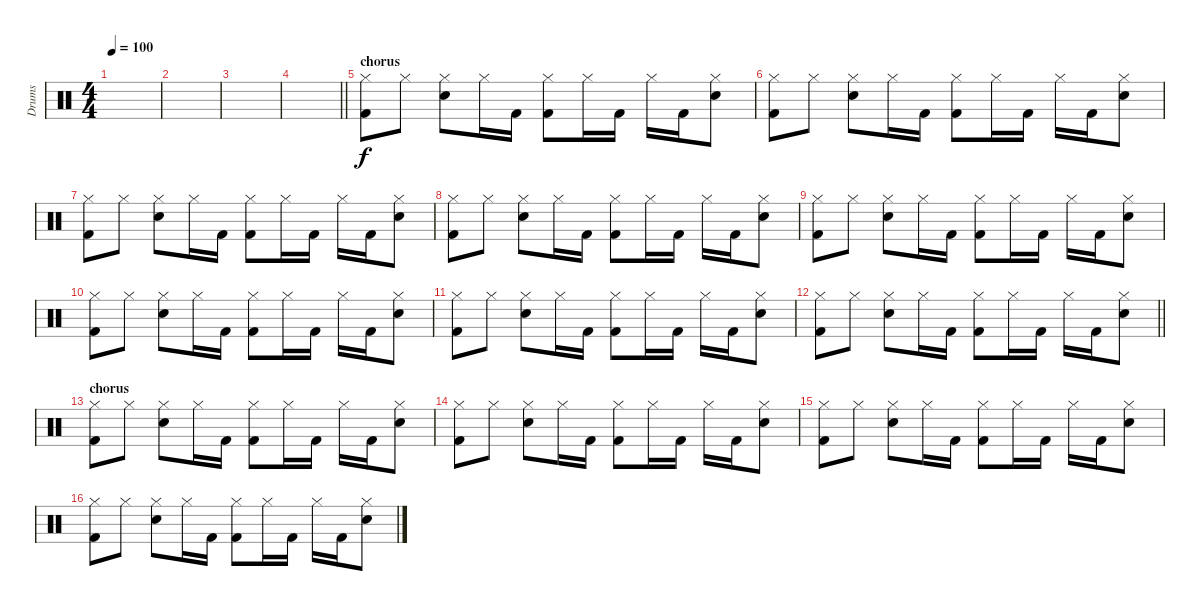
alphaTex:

\track ("Drums" "Drums") {instrument percussion}
\staff {score}
\articulation defaults
\ts (4 4)
\tempo 100
\clef neutral
\ks c
|
|
|
\barLineRight lightlight
|
\section ("" "chorus")
("Hi-Hat (closed)" "Kick (hit) 2").8 "Hi-Hat (closed)".8 ("Hi-Hat (closed)" "Snare (hit) 2").8 "Hi-Hat (closed)".16 "Kick (hit) 2".16 ("Hi-Hat (closed)" "Kick (hit) 2").8 "Hi-Hat (closed)".16 "Kick (hit) 2".16 "Hi-Hat (closed)".16 "Kick (hit) 2".16 ("Hi-Hat (closed)" "Snare (hit) 2").8 |
("Hi-Hat (closed)" "Kick (hit) 2").8 "Hi-Hat (closed)".8 ("Hi-Hat (closed)" "Snare (hit) 2").8 "Hi-Hat (closed)".16 "Kick (hit) 2".16 ("Hi-Hat (closed)" "Kick (hit) 2").8 "Hi-Hat (closed)".16 "Kick (hit) 2".16 "Hi-Hat (closed)".16 "Kick (hit) 2".16 ("Hi-Hat (closed)" "Snare (hit) 2").8 |
("Hi-Hat (closed)" "Kick (hit) 2").8 "Hi-Hat (closed)".8 ("Hi-Hat (closed)" "Snare (hit) 2").8 "Hi-Hat (closed)".16 "Kick (hit) 2".16 ("Hi-Hat (closed)" "Kick (hit) 2").8 "Hi-Hat (closed)".16 "Kick (hit) 2".16 "Hi-Hat (closed)".16 "Kick (hit) 2".16 ("Hi-Hat (closed)" "Snare (hit) 2").8 |
("Hi-Hat (closed)" "Kick (hit) 2").8 "Hi-Hat (closed)".8 ("Hi-Hat (closed)" "Snare (hit) 2").8 "Hi-Hat (closed)".16 "Kick (hit) 2".16 ("Hi-Hat (closed)" "Kick (hit) 2").8 "Hi-Hat (closed)".16 "Kick (hit) 2".16 "Hi-Hat (closed)".16 "Kick (hit) 2".16 ("Hi-Hat (closed)" "Snare (hit) 2").8 |
("Hi-Hat (closed)" "Kick (hit) 2").8 "Hi-Hat (closed)".8 ("Hi-Hat (closed)" "Snare (hit) 2").8 "Hi-Hat (closed)".16 "Kick (hit) 2".16 ("Hi-Hat (closed)" "Kick (hit) 2").8 "Hi-Hat (closed)".16 "Kick (hit) 2".16 "Hi-Hat (closed)".16 "Kick (hit) 2".16 ("Hi-Hat (closed)" "Snare (hit) 2").8 |
("Hi-Hat (closed)" "Kick (hit) 2").8 "Hi-Hat (closed)".8 ("Hi-Hat (closed)" "Snare (hit) 2").8 "Hi-Hat (closed)".16 "Kick (hit) 2".16 ("Hi-Hat (closed)" "Kick (hit) 2").8 "Hi-Hat (closed)".16 "Kick (hit) 2".16 "Hi-Hat (closed)".16 "Kick (hit) 2".16 ("Hi-Hat (closed)" "Snare (hit) 2").8 |
("Hi-Hat (closed)" "Kick (hit) 2").8 "Hi-Hat (closed)".8 ("Hi-Hat (closed)" "Snare (hit) 2").8 "Hi-Hat (closed)".16 "Kick (hit) 2".16 ("Hi-Hat (closed)" "Kick (hit) 2").8 "Hi-Hat (closed)".16 "Kick (hit) 2".16 "Hi-Hat (closed)".16 "Kick (hit) 2".16 ("Hi-Hat (closed)" "Snare (hit) 2").8 |
\barLineRight lightlight
("Hi-Hat (closed)" "Kick (hit) 2").8 "Hi-Hat (closed)".8 ("Hi-Hat (closed)" "Snare (hit) 2").8 "Hi-Hat (closed)".16 "Kick (hit) 2".16 ("Hi-Hat (closed)" "Kick (hit) 2").8 "Hi-Hat (closed)".16 "Kick (hit) 2".16 "Hi-Hat (closed)".16 "Kick (hit) 2".16 ("Hi-Hat (closed)" "Snare (hit) 2").8 |
\section ("" "chorus")
("Hi-Hat (closed)" "Kick (hit) 2").8 "Hi-Hat (closed)".8 ("Hi-Hat (closed)" "Snare (hit) 2").8 "Hi-Hat (closed)".16 "Kick (hit) 2".16 ("Hi-Hat (closed)" "Kick (hit) 2").8 "Hi-Hat (closed)".16 "Kick (hit) 2".16 "Hi-Hat (closed)".16 "Kick (hit) 2".16 ("Hi-Hat (closed)" "Snare (hit) 2").8 |
("Hi-Hat (closed)" "Kick (hit) 2").8 "Hi-Hat (closed)".8 ("Hi-Hat (closed)" "Snare (hit) 2").8 "Hi-Hat (closed)".16 "Kick (hit) 2".16 ("Hi-Hat (closed)" "Kick (hit) 2").8 "Hi-Hat (closed)".16 "Kick (hit) 2".16 "Hi-Hat (closed)".16 "Kick (hit) 2".16 ("Hi-Hat (closed)" "Snare (hit) 2").8 |
("Hi-Hat (closed)" "Kick (hit) 2").8 "Hi-Hat (closed)".8 ("Hi-Hat (closed)" "Snare (hit) 2").8 "Hi-Hat (closed)".16 "Kick (hit) 2".16 ("Hi-Hat (closed)" "Kick (hit) 2").8 "Hi-Hat (closed)".16 "Kick (hit) 2".16 "Hi-Hat (closed)".16 "Kick (hit) 2".16 ("Hi-Hat (closed)" "Snare (hit) 2").8 |
("Hi-Hat (closed)" "Kick (hit) 2").8 "Hi-Hat (closed)".8 ("Hi-Hat (closed)" "Snare (hit) 2").8 "Hi-Hat (closed)".16 "Kick (hit) 2".16 ("Hi-Hat (closed)" "Kick (hit) 2").8 "Hi-Hat (closed)".16 "Kick (hit) 2".16 "Hi-Hat (closed)".16 "Kick (hit) 2".16 ("Hi-Hat (closed)" "Snare (hit) 2").8
